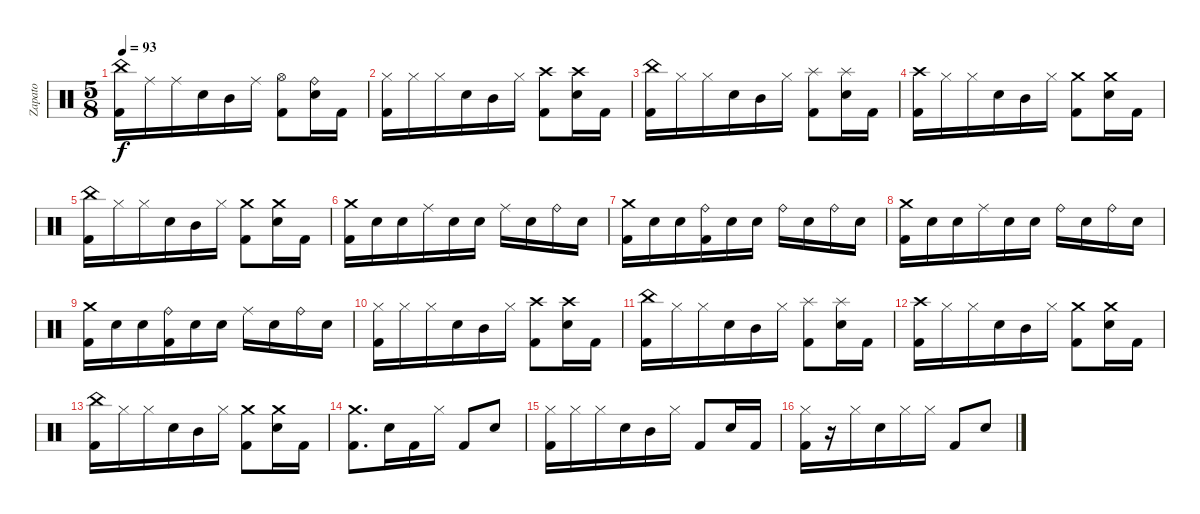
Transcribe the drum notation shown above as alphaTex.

\track ("Zapato" "Zapato") {instrument percussion}
\staff {score}
\articulation defaults
\ts (5 8)
\tempo 93
\clef neutral
\ks c
("Kick (hit) 2" "China (hit)").16{dy f} "Ride (middle)".16 "Ride (middle)".16 "Electric Snare (hit)".16 "Mid Tom (hit)".16 "Ride (middle)".16 ("Kick (hit) 2" "Hi-Hat (open)").8 ("Electric Snare (hit)" "Ride (bell)").16 "Kick (hit) 2".16 |
("Kick (hit) 2" "Hi-Hat (closed)").16 "Hi-Hat (closed)".16 "Hi-Hat (closed)".16 "Electric Snare (hit)".16 "Mid Tom (hit)".16 "Hi-Hat (closed)".16 ("Kick (hit) 2" "Crash high (hit)").8 ("Electric Snare (hit)" "Crash high (hit)").16 "Kick (hit) 2".16 |
("Kick (hit) 2" "China (hit)").16 "Hi-Hat (closed)".16 "Hi-Hat (closed)".16 "Electric Snare (hit)".16 "Mid Tom (hit)".16 "Hi-Hat (closed)".16 ("Kick (hit) 2" "Splash (hit)").8 ("Electric Snare (hit)" "Splash (hit)").16 "Kick (hit) 2".16 |
("Kick (hit) 2" "Crash high (hit)").16 "Hi-Hat (closed)".16 "Hi-Hat (closed)".16 "Electric Snare (hit)".16 "Mid Tom (hit)".16 "Hi-Hat (closed)".16 ("Kick (hit) 2" "Crash medium (hit)").8 ("Electric Snare (hit)" "Crash medium (hit)").16 "Kick (hit) 2".16 |
("Kick (hit) 2" "China (hit)").16 "Hi-Hat (closed)".16 "Hi-Hat (closed)".16 "Electric Snare (hit)".16 "Mid Tom (hit)".16 "Hi-Hat (closed)".16 ("Kick (hit) 2" "Crash medium (hit)").8 ("Electric Snare (hit)" "Crash medium (hit)").16 "Kick (hit) 2".16 |
("Kick (hit) 2" "Crash medium (hit)").16 "Electric Snare (hit)".16 "Electric Snare (hit)".16 "Ride (middle)".16 "Electric Snare (hit)".16 "Electric Snare (hit)".16 "Ride (middle)".16 "Electric Snare (hit)".16 "Ride (bell)".16 "Electric Snare (hit)".16 |
("Kick (hit) 2" "Crash medium (hit)").16 "Electric Snare (hit)".16 "Electric Snare (hit)".16 ("Kick (hit) 2" "Ride (bell)").16 "Electric Snare (hit)".16 "Electric Snare (hit)".16 "Ride (bell)".16 "Electric Snare (hit)".16 "Ride (bell)".16 "Electric Snare (hit)".16 |
("Kick (hit) 2" "Crash medium (hit)").16 "Electric Snare (hit)".16 "Electric Snare (hit)".16 "Ride (middle)".16 "Electric Snare (hit)".16 "Electric Snare (hit)".16 "Ride (bell)".16 "Electric Snare (hit)".16 "Ride (bell)".16 "Electric Snare (hit)".16 |
("Kick (hit) 2" "Crash medium (hit)").16 "Electric Snare (hit)".16 "Electric Snare (hit)".16 ("Kick (hit) 2" "Ride (bell)").16 "Electric Snare (hit)".16 "Electric Snare (hit)".16 "Ride (middle)".16 "Electric Snare (hit)".16 "Ride (bell)".16 "Electric Snare (hit)".16 |
("Kick (hit) 2" "Hi-Hat (closed)").16 "Hi-Hat (closed)".16 "Hi-Hat (closed)".16 "Electric Snare (hit)".16 "Mid Tom (hit)".16 "Hi-Hat (closed)".16 ("Kick (hit) 2" "Crash high (hit)").8 ("Electric Snare (hit)" "Crash high (hit)").16 "Kick (hit) 2".16 |
("Kick (hit) 2" "China (hit)").16 "Hi-Hat (closed)".16 "Hi-Hat (closed)".16 "Electric Snare (hit)".16 "Mid Tom (hit)".16 "Hi-Hat (closed)".16 ("Kick (hit) 2" "Splash (hit)").8 ("Electric Snare (hit)" "Splash (hit)").16 "Kick (hit) 2".16 |
("Kick (hit) 2" "Crash high (hit)").16 "Hi-Hat (closed)".16 "Hi-Hat (closed)".16 "Electric Snare (hit)".16 "Mid Tom (hit)".16 "Hi-Hat (closed)".16 ("Kick (hit) 2" "Crash medium (hit)").8 ("Electric Snare (hit)" "Crash medium (hit)").16 "Kick (hit) 2".16 |
("Kick (hit) 2" "China (hit)").16 "Hi-Hat (closed)".16 "Hi-Hat (closed)".16 "Electric Snare (hit)".16 "Mid Tom (hit)".16 "Hi-Hat (closed)".16 ("Kick (hit) 2" "Crash medium (hit)").8 ("Electric Snare (hit)" "Crash medium (hit)").16 "Kick (hit) 2".16 |
("Kick (hit) 2" "Crash medium (hit)").8{d} "Electric Snare (hit)".16 "Kick (hit) 2".16 "Hi-Hat (closed)".16 "Kick (hit) 2".8 "Electric Snare (hit)".8 |
("Kick (hit) 2" "Hi-Hat (closed)").16 "Hi-Hat (closed)".16 "Hi-Hat (closed)".16 "Electric Snare (hit)".16 "Mid Tom (hit)".16 "Hi-Hat (closed)".16 "Kick (hit) 2".8 "Electric Snare (hit)".16 "Kick (hit) 2".16 |
("Kick (hit) 2" "Hi-Hat (closed)").16 r.16 "Hi-Hat (closed)".16 "Electric Snare (hit)".16 "Hi-Hat (closed)".16 "Hi-Hat (closed)".16 "Kick (hit) 2".8 "Electric Snare (hit)".8
